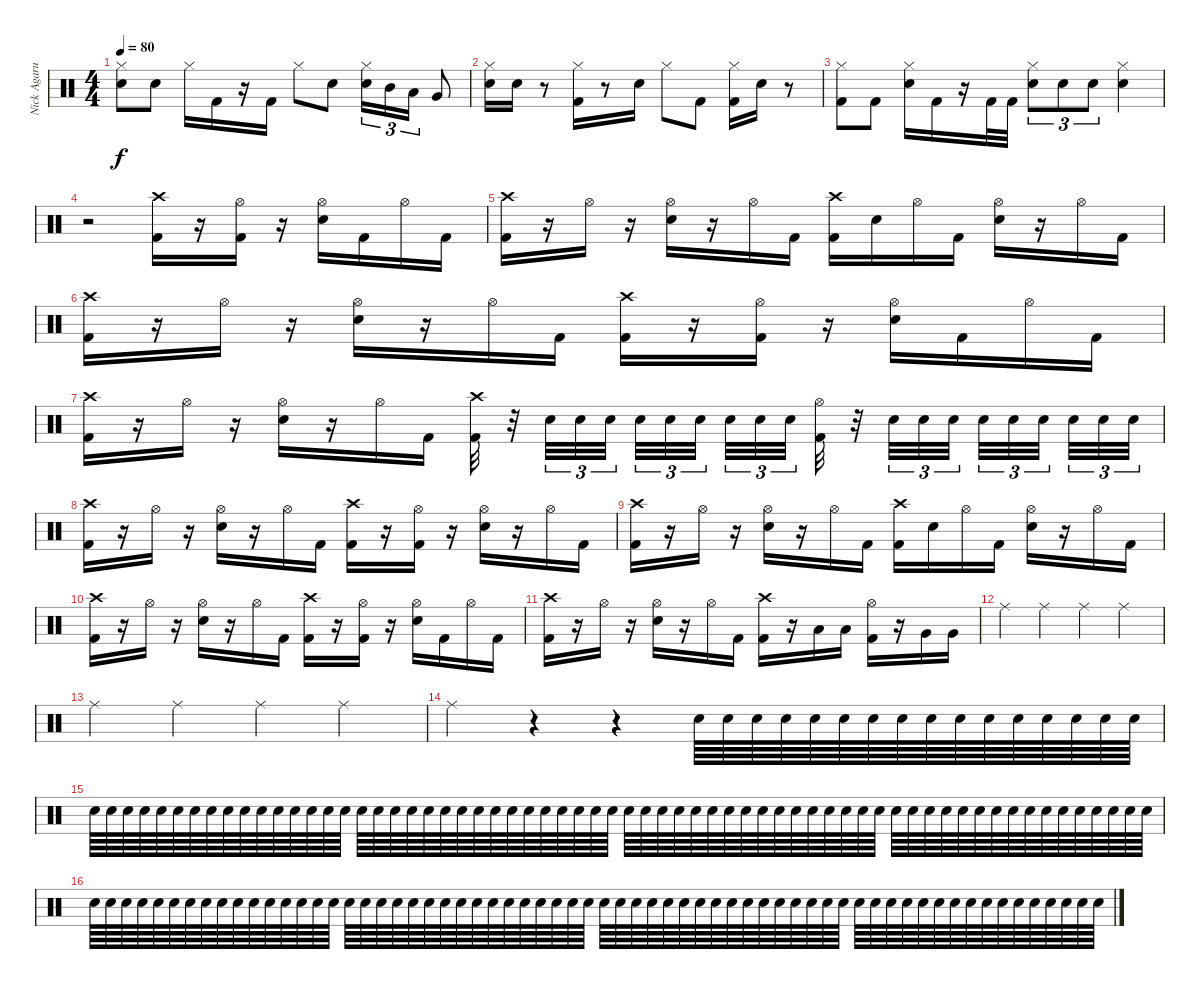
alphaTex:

\track ("Nick Agarua" "Nick Agaru") {instrument percussion}
\staff {score}
\articulation defaults
\ts (4 4)
\tempo 80
\clef neutral
\ks c
("Hi-Hat (closed)" "Electric Snare (hit)").8{dy f} "Electric Snare (hit)".8 "Hi-Hat (closed)".16 "Kick (hit) 2".16 r.16 "Kick (hit) 2".16 "Hi-Hat (closed)".8 "Electric Snare (hit)".8 ("Hi-Hat (closed)" "Electric Snare (hit)").16{tu (3 2)} "Mid Tom (hit)".16{tu (3 2)} "Low Tom (hit)".16{tu (3 2)} "Very Low Tom (hit)".8 |
("Hi-Hat (closed)" "Electric Snare (hit)").16 "Electric Snare (hit)".16 r.8 ("Hi-Hat (closed)" "Kick (hit) 2").16 r.8 "Electric Snare (hit)".16 "Hi-Hat (closed)".8 "Kick (hit) 2".8 ("Hi-Hat (closed)" "Kick (hit) 2").16 "Electric Snare (hit)".16 r.8 |
("Hi-Hat (closed)" "Kick (hit) 2").8 "Kick (hit) 2".8 ("Hi-Hat (closed)" "Electric Snare (hit)").16 "Kick (hit) 2".16 r.16 "Kick (hit) 2".32 "Kick (hit) 2".32 ("Hi-Hat (closed)" "Electric Snare (hit)").8{tu (3 2)} "Electric Snare (hit)".8{tu (3 2)} "Electric Snare (hit)".8{tu (3 2)} ("Hi-Hat (closed)" "Electric Snare (hit)").4 |
r.2 ("Crash high (hit)" "Kick (hit) 2").16 r.16 ("Hi-Hat (open)" "Kick (hit) 2").16 r.16 ("Hi-Hat (open)" "Electric Snare (hit)").16 "Kick (hit) 2".16 "Hi-Hat (open)".16 "Kick (hit) 2".16 |
("Crash high (hit)" "Kick (hit) 2").16 r.16 "Hi-Hat (open)".16 r.16 ("Hi-Hat (open)" "Electric Snare (hit)").16 r.16 "Hi-Hat (open)".16 "Kick (hit) 2".16 ("Crash high (hit)" "Kick (hit) 2").16 "Electric Snare (hit)".16 "Hi-Hat (open)".16 "Kick (hit) 2".16 ("Hi-Hat (open)" "Electric Snare (hit)").16 r.16 "Hi-Hat (open)".16 "Kick (hit) 2".16 |
("Crash high (hit)" "Kick (hit) 2").16 r.16 "Hi-Hat (open)".16 r.16 ("Hi-Hat (open)" "Electric Snare (hit)").16 r.16 "Hi-Hat (open)".16 "Kick (hit) 2".16 ("Crash high (hit)" "Kick (hit) 2").16 r.16 ("Hi-Hat (open)" "Kick (hit) 2").16 r.16 ("Hi-Hat (open)" "Electric Snare (hit)").16 "Kick (hit) 2".16 "Hi-Hat (open)".16 "Kick (hit) 2".16 |
("Crash high (hit)" "Kick (hit) 2").16 r.16 "Hi-Hat (open)".16 r.16 ("Hi-Hat (open)" "Electric Snare (hit)").16 r.16 "Hi-Hat (open)".16 "Kick (hit) 2".16 ("Crash high (hit)" "Kick (hit) 2").32 r.32 "Electric Snare (hit)".32{tu (3 2)} "Electric Snare (hit)".32{tu (3 2)} "Electric Snare (hit)".32{tu (3 2) beam splitsecondary} "Electric Snare (hit)".32{tu (3 2)} "Electric Snare (hit)".32{tu (3 2)} "Electric Snare (hit)".32{tu (3 2) beam splitsecondary} "Electric Snare (hit)".32{tu (3 2)} "Electric Snare (hit)".32{tu (3 2)} "Electric Snare (hit)".32{tu (3 2)} ("Hi-Hat (open)" "Kick (hit) 2").32 r.32 "Electric Snare (hit)".32{tu (3 2)} "Electric Snare (hit)".32{tu (3 2)} "Electric Snare (hit)".32{tu (3 2) beam splitsecondary} "Electric Snare (hit)".32{tu (3 2)} "Electric Snare (hit)".32{tu (3 2)} "Electric Snare (hit)".32{tu (3 2) beam splitsecondary} "Electric Snare (hit)".32{tu (3 2)} "Electric Snare (hit)".32{tu (3 2)} "Electric Snare (hit)".32{tu (3 2)} |
("Crash high (hit)" "Kick (hit) 2").16 r.16 "Hi-Hat (open)".16 r.16 ("Hi-Hat (open)" "Electric Snare (hit)").16 r.16 "Hi-Hat (open)".16 "Kick (hit) 2".16 ("Crash high (hit)" "Kick (hit) 2").16 r.16 ("Hi-Hat (open)" "Kick (hit) 2").16 r.16 ("Hi-Hat (open)" "Electric Snare (hit)").16 r.16 "Hi-Hat (open)".16 "Kick (hit) 2".16 |
("Crash high (hit)" "Kick (hit) 2").16 r.16 "Hi-Hat (open)".16 r.16 ("Hi-Hat (open)" "Electric Snare (hit)").16 r.16 "Hi-Hat (open)".16 "Kick (hit) 2".16 ("Crash high (hit)" "Kick (hit) 2").16 "Electric Snare (hit)".16 "Hi-Hat (open)".16 "Kick (hit) 2".16 ("Hi-Hat (open)" "Electric Snare (hit)").16 r.16 "Hi-Hat (open)".16 "Kick (hit) 2".16 |
("Crash high (hit)" "Kick (hit) 2").16 r.16 "Hi-Hat (open)".16 r.16 ("Hi-Hat (open)" "Electric Snare (hit)").16 r.16 "Hi-Hat (open)".16 "Kick (hit) 2".16 ("Crash high (hit)" "Kick (hit) 2").16 r.16 ("Hi-Hat (open)" "Kick (hit) 2").16 r.16 ("Hi-Hat (open)" "Electric Snare (hit)").16 "Kick (hit) 2".16 "Hi-Hat (open)".16 "Kick (hit) 2".16 |
("Crash high (hit)" "Kick (hit) 2").16 r.16 "Hi-Hat (open)".16 r.16 ("Hi-Hat (open)" "Electric Snare (hit)").16 r.16 "Hi-Hat (open)".16 "Kick (hit) 2".16 ("Crash high (hit)" "Kick (hit) 2").16 r.16 "Low Tom (hit)".16 "Low Tom (hit)".16 ("Hi-Hat (open)" "Kick (hit) 2").16 r.16 "Very Low Tom (hit)".16 "Very Low Tom (hit)".16 |
"Ride (middle)".4 "Ride (middle)".4 "Ride (middle)".4 "Ride (middle)".4 |
"Ride (middle)".4 "Ride (middle)".4 "Ride (middle)".4 "Ride (middle)".4 |
"Ride (middle)".4 r.4 r.4 "Snare (hit) 2".64{volume 5} "Snare (hit) 2".64 "Snare (hit) 2".64 "Snare (hit) 2".64 "Snare (hit) 2".64 "Snare (hit) 2".64 "Snare (hit) 2".64 "Snare (hit) 2".64 "Snare (hit) 2".64 "Snare (hit) 2".64 "Snare (hit) 2".64 "Snare (hit) 2".64 "Snare (hit) 2".64 "Snare (hit) 2".64 "Snare (hit) 2".64 "Snare (hit) 2".64 |
"Snare (hit) 2".64{volume 13} "Snare (hit) 2".64 "Snare (hit) 2".64 "Snare (hit) 2".64 "Snare (hit) 2".64 "Snare (hit) 2".64 "Snare (hit) 2".64 "Snare (hit) 2".64 "Snare (hit) 2".64 "Snare (hit) 2".64 "Snare (hit) 2".64 "Snare (hit) 2".64 "Snare (hit) 2".64 "Snare (hit) 2".64 "Snare (hit) 2".64 "Snare (hit) 2".64 "Snare (hit) 2".64 "Snare (hit) 2".64 "Snare (hit) 2".64 "Snare (hit) 2".64 "Snare (hit) 2".64 "Snare (hit) 2".64 "Snare (hit) 2".64 "Snare (hit) 2".64 "Snare (hit) 2".64 "Snare (hit) 2".64 "Snare (hit) 2".64 "Snare (hit) 2".64 "Snare (hit) 2".64 "Snare (hit) 2".64 "Snare (hit) 2".64 "Snare (hit) 2".64 "Snare (hit) 2".64 "Snare (hit) 2".64 "Snare (hit) 2".64 "Snare (hit) 2".64 "Snare (hit) 2".64 "Snare (hit) 2".64 "Snare (hit) 2".64 "Snare (hit) 2".64 "Snare (hit) 2".64 "Snare (hit) 2".64 "Snare (hit) 2".64 "Snare (hit) 2".64 "Snare (hit) 2".64 "Snare (hit) 2".64 "Snare (hit) 2".64 "Snare (hit) 2".64 "Snare (hit) 2".64 "Snare (hit) 2".64 "Snare (hit) 2".64 "Snare (hit) 2".64 "Snare (hit) 2".64 "Snare (hit) 2".64 "Snare (hit) 2".64 "Snare (hit) 2".64 "Snare (hit) 2".64 "Snare (hit) 2".64 "Snare (hit) 2".64 "Snare (hit) 2".64 "Snare (hit) 2".64 "Snare (hit) 2".64 "Snare (hit) 2".64 "Snare (hit) 2".64 |
"Snare (hit) 2".64 "Snare (hit) 2".64 "Snare (hit) 2".64 "Snare (hit) 2".64 "Snare (hit) 2".64 "Snare (hit) 2".64 "Snare (hit) 2".64 "Snare (hit) 2".64 "Snare (hit) 2".64 "Snare (hit) 2".64 "Snare (hit) 2".64 "Snare (hit) 2".64 "Snare (hit) 2".64 "Snare (hit) 2".64 "Snare (hit) 2".64 "Snare (hit) 2".64 "Snare (hit) 2".64 "Snare (hit) 2".64 "Snare (hit) 2".64 "Snare (hit) 2".64 "Snare (hit) 2".64 "Snare (hit) 2".64 "Snare (hit) 2".64 "Snare (hit) 2".64 "Snare (hit) 2".64 "Snare (hit) 2".64 "Snare (hit) 2".64 "Snare (hit) 2".64 "Snare (hit) 2".64 "Snare (hit) 2".64 "Snare (hit) 2".64 "Snare (hit) 2".64 "Electric Snare (hit)".64 "Electric Snare (hit)".64 "Electric Snare (hit)".64 "Electric Snare (hit)".64 "Electric Snare (hit)".64 "Electric Snare (hit)".64 "Electric Snare (hit)".64 "Electric Snare (hit)".64 "Electric Snare (hit)".64 "Electric Snare (hit)".64 "Electric Snare (hit)".64 "Electric Snare (hit)".64 "Electric Snare (hit)".64 "Electric Snare (hit)".64 "Electric Snare (hit)".64 "Electric Snare (hit)".64 "Electric Snare (hit)".64 "Electric Snare (hit)".64 "Electric Snare (hit)".64 "Electric Snare (hit)".64 "Electric Snare (hit)".64 "Electric Snare (hit)".64 "Electric Snare (hit)".64 "Electric Snare (hit)".64 "Electric Snare (hit)".64 "Electric Snare (hit)".64 "Electric Snare (hit)".64 "Electric Snare (hit)".64 "Electric Snare (hit)".64 "Electric Snare (hit)".64 "Electric Snare (hit)".64 "Electric Snare (hit)".64
